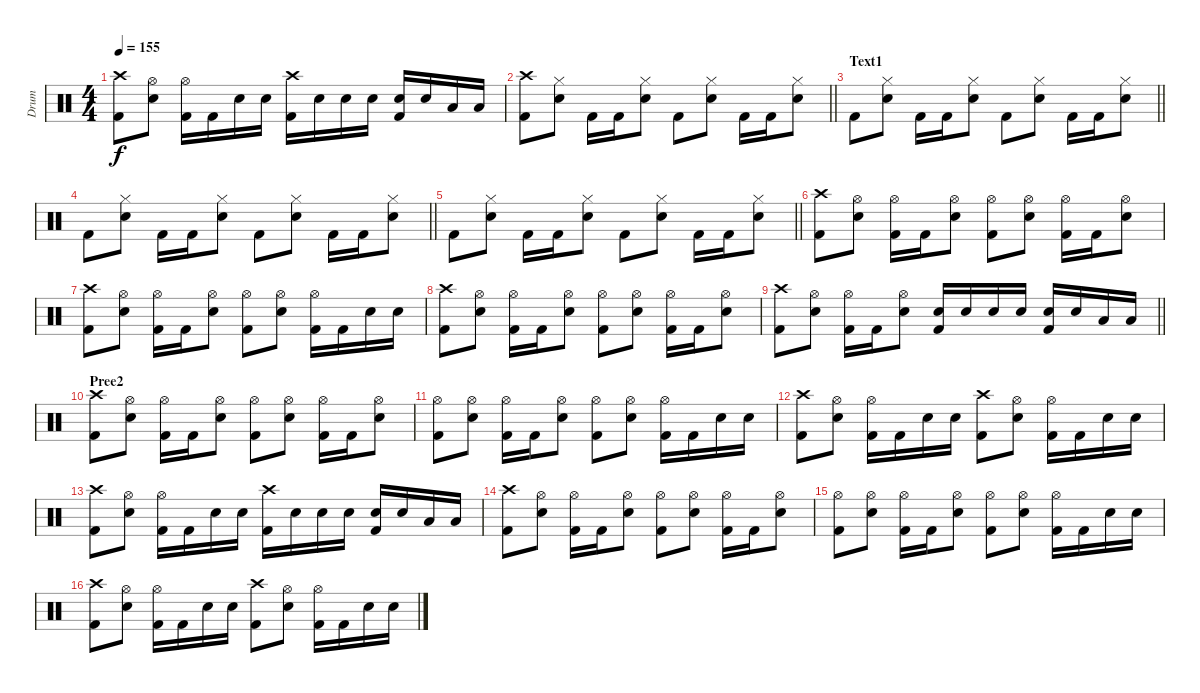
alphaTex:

\track ("Drum" "Drum") {solo instrument percussion}
\staff {score}
\articulation defaults
\ts (4 4)
\tempo 155
\clef neutral
\ks c
("Crash high (hit)" "Kick (hit) 2").8{dy f} ("Hi-Hat (open)" "Electric Snare (hit)").8 ("Kick (hit) 2" "Hi-Hat (open)").16 "Kick (hit) 2".16 "Electric Snare (hit)".16 "Electric Snare (hit)".16 ("Crash high (hit)" "Kick (hit) 2").16 "Electric Snare (hit)".16 "Electric Snare (hit)".16 "Electric Snare (hit)".16 ("Electric Snare (hit)" "Kick (hit) 2").16 "Electric Snare (hit)".16 "Low Tom (hit)".16 "Low Tom (hit)".16 |
\barLineRight lightlight
("Crash high (hit)" "Kick (hit) 2").8 ("Hi-Hat (closed)" "Electric Snare (hit)").8 "Kick (hit) 2".16 "Kick (hit) 2".16 ("Hi-Hat (closed)" "Electric Snare (hit)").8 "Kick (hit) 2".8 ("Hi-Hat (closed)" "Electric Snare (hit)").8 "Kick (hit) 2".16 "Kick (hit) 2".16 ("Hi-Hat (closed)" "Electric Snare (hit)").8 |
\section ("" "Text1")
\barLineRight lightlight "Kick (hit) 2".8
("Hi-Hat (closed)" "Electric Snare (hit)").8 "Kick (hit) 2".16 "Kick (hit) 2".16 ("Hi-Hat (closed)" "Electric Snare (hit)").8 "Kick (hit) 2".8 ("Hi-Hat (closed)" "Electric Snare (hit)").8 "Kick (hit) 2".16 "Kick (hit) 2".16 ("Hi-Hat (closed)" "Electric Snare (hit)").8 |
\barLineRight lightlight "Kick (hit) 2".8
("Hi-Hat (closed)" "Electric Snare (hit)").8 "Kick (hit) 2".16 "Kick (hit) 2".16 ("Hi-Hat (closed)" "Electric Snare (hit)").8 "Kick (hit) 2".8 ("Hi-Hat (closed)" "Electric Snare (hit)").8 "Kick (hit) 2".16 "Kick (hit) 2".16 ("Hi-Hat (closed)" "Electric Snare (hit)").8 |
\barLineRight lightlight "Kick (hit) 2".8
("Hi-Hat (closed)" "Electric Snare (hit)").8 "Kick (hit) 2".16 "Kick (hit) 2".16 ("Hi-Hat (closed)" "Electric Snare (hit)").8 "Kick (hit) 2".8 ("Hi-Hat (closed)" "Electric Snare (hit)").8 "Kick (hit) 2".16 "Kick (hit) 2".16 ("Hi-Hat (closed)" "Electric Snare (hit)").8 |
("Crash high (hit)" "Kick (hit) 2").8 ("Hi-Hat (open)" "Electric Snare (hit)").8 ("Hi-Hat (open)" "Kick (hit) 2").16 "Kick (hit) 2".16 ("Hi-Hat (open)" "Electric Snare (hit)").8 ("Hi-Hat (open)" "Kick (hit) 2").8 ("Hi-Hat (open)" "Electric Snare (hit)").8 ("Kick (hit) 2" "Hi-Hat (open)").16 "Kick (hit) 2".16 ("Hi-Hat (open)" "Electric Snare (hit)").8 |
("Crash high (hit)" "Kick (hit) 2").8 ("Hi-Hat (open)" "Electric Snare (hit)").8 ("Hi-Hat (open)" "Kick (hit) 2").16 "Kick (hit) 2".16 ("Hi-Hat (open)" "Electric Snare (hit)").8 ("Hi-Hat (open)" "Kick (hit) 2").8 ("Hi-Hat (open)" "Electric Snare (hit)").8 ("Kick (hit) 2" "Hi-Hat (open)").16 "Kick (hit) 2".16 "Electric Snare (hit)".16 "Electric Snare (hit)".16 |
("Crash high (hit)" "Kick (hit) 2").8 ("Hi-Hat (open)" "Electric Snare (hit)").8 ("Hi-Hat (open)" "Kick (hit) 2").16 "Kick (hit) 2".16 ("Hi-Hat (open)" "Electric Snare (hit)").8 ("Hi-Hat (open)" "Kick (hit) 2").8 ("Hi-Hat (open)" "Electric Snare (hit)").8 ("Kick (hit) 2" "Hi-Hat (open)").16 "Kick (hit) 2".16 ("Hi-Hat (open)" "Electric Snare (hit)").8 |
\barLineRight lightlight
("Crash high (hit)" "Kick (hit) 2").8 ("Hi-Hat (open)" "Electric Snare (hit)").8 ("Kick (hit) 2" "Hi-Hat (open)").16 "Kick (hit) 2".16 ("Hi-Hat (open)" "Electric Snare (hit)").8 ("Electric Snare (hit)" "Kick (hit) 2").16 "Electric Snare (hit)".16 "Electric Snare (hit)".16 "Electric Snare (hit)".16 ("Electric Snare (hit)" "Kick (hit) 2").16 "Electric Snare (hit)".16 "Low Tom (hit)".16 "Low Tom (hit)".16 |
\section ("" "Pree2")
("Crash high (hit)" "Kick (hit) 2").8 ("Hi-Hat (open)" "Electric Snare (hit)").8 ("Hi-Hat (open)" "Kick (hit) 2").16 "Kick (hit) 2".16 ("Hi-Hat (open)" "Electric Snare (hit)").8 ("Hi-Hat (open)" "Kick (hit) 2").8 ("Hi-Hat (open)" "Electric Snare (hit)").8 ("Kick (hit) 2" "Hi-Hat (open)").16 "Kick (hit) 2".16 ("Hi-Hat (open)" "Electric Snare (hit)").8 |
("Hi-Hat (open)" "Kick (hit) 2").8 ("Hi-Hat (open)" "Electric Snare (hit)").8 ("Hi-Hat (open)" "Kick (hit) 2").16 "Kick (hit) 2".16 ("Hi-Hat (open)" "Electric Snare (hit)").8 ("Hi-Hat (open)" "Kick (hit) 2").8 ("Hi-Hat (open)" "Electric Snare (hit)").8 ("Kick (hit) 2" "Hi-Hat (open)").16 "Kick (hit) 2".16 "Electric Snare (hit)".16 "Electric Snare (hit)".16 |
("Crash high (hit)" "Kick (hit) 2").8 ("Hi-Hat (open)" "Electric Snare (hit)").8 ("Kick (hit) 2" "Hi-Hat (open)").16 "Kick (hit) 2".16 "Electric Snare (hit)".16 "Electric Snare (hit)".16 ("Crash high (hit)" "Kick (hit) 2").8 ("Hi-Hat (open)" "Electric Snare (hit)").8 ("Kick (hit) 2" "Hi-Hat (open)").16 "Kick (hit) 2".16 "Electric Snare (hit)".16 "Electric Snare (hit)".16 |
("Crash high (hit)" "Kick (hit) 2").8 ("Hi-Hat (open)" "Electric Snare (hit)").8 ("Kick (hit) 2" "Hi-Hat (open)").16 "Kick (hit) 2".16 "Electric Snare (hit)".16 "Electric Snare (hit)".16 ("Crash high (hit)" "Kick (hit) 2").16 "Electric Snare (hit)".16 "Electric Snare (hit)".16 "Electric Snare (hit)".16 ("Electric Snare (hit)" "Kick (hit) 2").16 "Electric Snare (hit)".16 "Low Tom (hit)".16 "Low Tom (hit)".16 |
("Crash high (hit)" "Kick (hit) 2").8 ("Hi-Hat (open)" "Electric Snare (hit)").8 ("Hi-Hat (open)" "Kick (hit) 2").16 "Kick (hit) 2".16 ("Hi-Hat (open)" "Electric Snare (hit)").8 ("Hi-Hat (open)" "Kick (hit) 2").8 ("Hi-Hat (open)" "Electric Snare (hit)").8 ("Kick (hit) 2" "Hi-Hat (open)").16 "Kick (hit) 2".16 ("Hi-Hat (open)" "Electric Snare (hit)").8 |
("Hi-Hat (open)" "Kick (hit) 2").8 ("Hi-Hat (open)" "Electric Snare (hit)").8 ("Hi-Hat (open)" "Kick (hit) 2").16 "Kick (hit) 2".16 ("Hi-Hat (open)" "Electric Snare (hit)").8 ("Hi-Hat (open)" "Kick (hit) 2").8 ("Hi-Hat (open)" "Electric Snare (hit)").8 ("Kick (hit) 2" "Hi-Hat (open)").16 "Kick (hit) 2".16 "Electric Snare (hit)".16 "Electric Snare (hit)".16 |
("Crash high (hit)" "Kick (hit) 2").8 ("Hi-Hat (open)" "Electric Snare (hit)").8 ("Kick (hit) 2" "Hi-Hat (open)").16 "Kick (hit) 2".16 "Electric Snare (hit)".16 "Electric Snare (hit)".16 ("Crash high (hit)" "Kick (hit) 2").8 ("Hi-Hat (open)" "Electric Snare (hit)").8 ("Kick (hit) 2" "Hi-Hat (open)").16 "Kick (hit) 2".16 "Electric Snare (hit)".16 "Electric Snare (hit)".16
